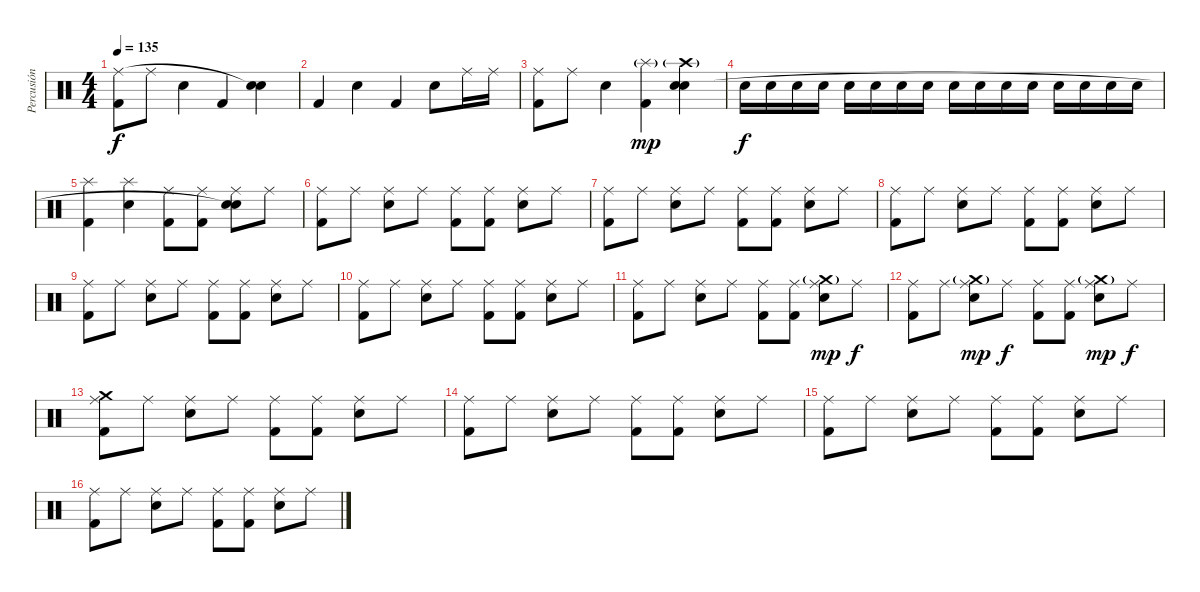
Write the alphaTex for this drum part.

\track ("Percusión" "Percusión") {instrument percussion}
\staff {score}
\articulation defaults
\ts (4 4)
\tempo 135
\clef neutral
\ks c
("Kick (hit) 2" "Ride (middle)").8{dy f} "Ride (middle)".8 "Snare (hit) 2".4 "Kick (hit) 2".4 ("Snare (hit) 2" "Snare (hit)"{t}).4 |
"Kick (hit) 2".4 "Snare (hit) 2".4 "Kick (hit) 2".4 "Snare (hit) 2".8 "Ride (middle)".16 "Ride (middle)".16 |
("Kick (hit) 2" "Ride (middle)").8 "Ride (middle)".8 "Snare (hit) 2".4 ("Kick (hit) 2" "Splash (hit)"{g}).4{dy mp} ("Snare (hit) 2" "Crash high (hit)"{g} "Snare (hit)").4 |
"Snare (hit) 2".16{dy f} "Snare (hit) 2".16 "Snare (hit) 2".16 "Snare (hit) 2".16 "Snare (hit) 2".16 "Snare (hit) 2".16 "Snare (hit) 2".16 "Snare (hit) 2".16 "Snare (hit) 2".16 "Snare (hit) 2".16 "Snare (hit) 2".16 "Snare (hit) 2".16 "Snare (hit) 2".16 "Snare (hit) 2".16 "Snare (hit) 2".16 "Snare (hit) 2".16 |
("Kick (hit) 2" "Splash (hit)").4 ("Snare (hit) 2" "Splash (hit)").4 ("Kick (hit) 2" "Ride (middle)").8 ("Kick (hit) 2" "Ride (middle)").8 ("Snare (hit) 2" "Ride (middle)" "Snare (hit)"{t}).8 "Ride (middle)".8 |
("Kick (hit) 2" "Ride (middle)").8 "Ride (middle)".8 ("Snare (hit) 2" "Ride (middle)").8 "Ride (middle)".8 ("Kick (hit) 2" "Ride (middle)").8 ("Kick (hit) 2" "Ride (middle)").8 ("Snare (hit) 2" "Ride (middle)").8 "Ride (middle)".8 |
("Kick (hit) 2" "Ride (middle)").8 "Ride (middle)".8 ("Snare (hit) 2" "Ride (middle)").8 "Ride (middle)".8 ("Kick (hit) 2" "Ride (middle)").8 ("Kick (hit) 2" "Ride (middle)").8 ("Snare (hit) 2" "Ride (middle)").8 "Ride (middle)".8 |
("Kick (hit) 2" "Ride (middle)").8 "Ride (middle)".8 ("Snare (hit) 2" "Ride (middle)").8 "Ride (middle)".8 ("Kick (hit) 2" "Ride (middle)").8 ("Kick (hit) 2" "Ride (middle)").8 ("Snare (hit) 2" "Ride (middle)").8 "Ride (middle)".8 |
("Kick (hit) 2" "Ride (middle)").8 "Ride (middle)".8 ("Snare (hit) 2" "Ride (middle)").8 "Ride (middle)".8 ("Kick (hit) 2" "Ride (middle)").8 ("Kick (hit) 2" "Ride (middle)").8 ("Snare (hit) 2" "Ride (middle)").8 "Ride (middle)".8 |
("Kick (hit) 2" "Ride (middle)").8 "Ride (middle)".8 ("Snare (hit) 2" "Ride (middle)").8 "Ride (middle)".8 ("Kick (hit) 2" "Ride (middle)").8 ("Kick (hit) 2" "Ride (middle)").8 ("Snare (hit) 2" "Ride (middle)").8 "Ride (middle)".8 |
("Kick (hit) 2" "Ride (middle)").8 "Ride (middle)".8 ("Snare (hit) 2" "Ride (middle)").8 "Ride (middle)".8 ("Kick (hit) 2" "Ride (middle)").8 ("Kick (hit) 2" "Ride (middle)").8 ("Snare (hit) 2" "Ride (middle)" "Crash medium (hit)"{g}).8{dy mp} "Ride (middle)".8{dy f} |
("Kick (hit) 2" "Ride (middle)").8 "Ride (middle)".8 ("Snare (hit) 2" "Ride (middle)" "Crash medium (hit)"{g}).8{dy mp} "Ride (middle)".8{dy f} ("Kick (hit) 2" "Ride (middle)").8 ("Kick (hit) 2" "Ride (middle)").8 ("Snare (hit) 2" "Ride (middle)" "Crash medium (hit)"{g}).8{dy mp} "Ride (middle)".8{dy f} |
("Kick (hit) 2" "Ride (middle)" "Crash medium (hit)").8 "Ride (middle)".8 ("Snare (hit) 2" "Ride (middle)").8 "Ride (middle)".8 ("Kick (hit) 2" "Ride (middle)").8 ("Kick (hit) 2" "Ride (middle)").8 ("Snare (hit) 2" "Ride (middle)").8 "Ride (middle)".8 |
("Kick (hit) 2" "Ride (middle)").8 "Ride (middle)".8 ("Snare (hit) 2" "Ride (middle)").8 "Ride (middle)".8 ("Kick (hit) 2" "Ride (middle)").8 ("Kick (hit) 2" "Ride (middle)").8 ("Snare (hit) 2" "Ride (middle)").8 "Ride (middle)".8 |
("Kick (hit) 2" "Ride (middle)").8 "Ride (middle)".8 ("Snare (hit) 2" "Ride (middle)").8 "Ride (middle)".8 ("Kick (hit) 2" "Ride (middle)").8 ("Kick (hit) 2" "Ride (middle)").8 ("Snare (hit) 2" "Ride (middle)").8 "Ride (middle)".8 |
("Kick (hit) 2" "Ride (middle)").8 "Ride (middle)".8 ("Snare (hit) 2" "Ride (middle)").8 "Ride (middle)".8 ("Kick (hit) 2" "Ride (middle)").8 ("Kick (hit) 2" "Ride (middle)").8 ("Snare (hit) 2" "Ride (middle)").8 "Ride (middle)".8
